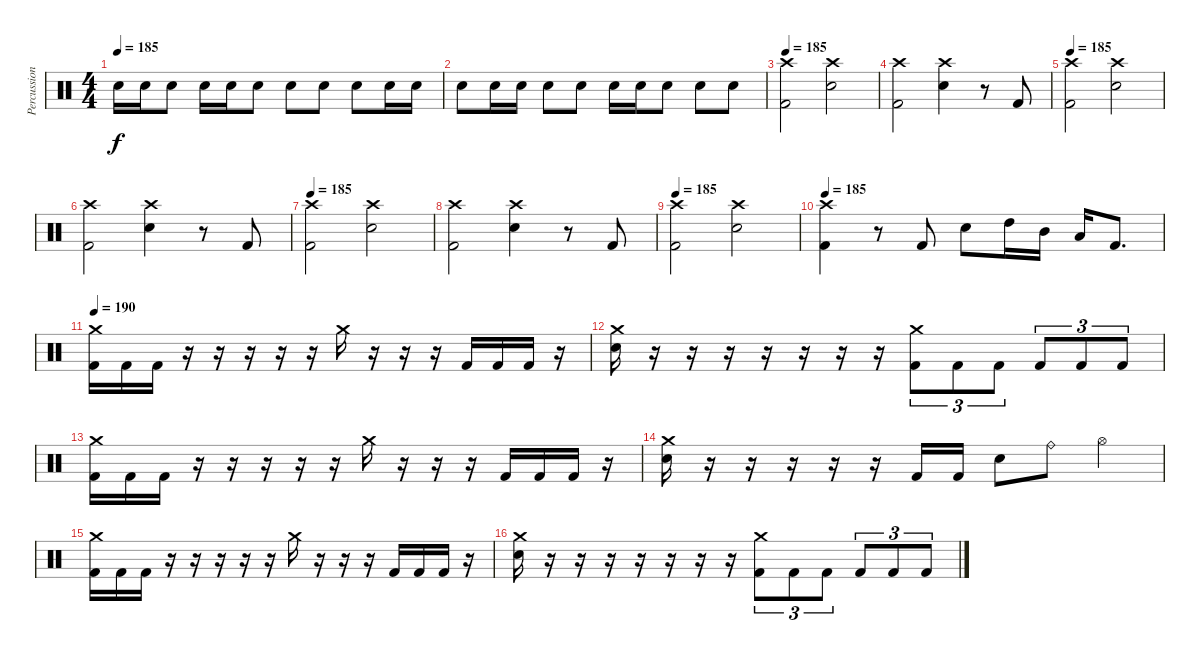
\track ("Percussion" "Percussion") {instrument percussion}
\staff {score}
\articulation defaults
\ts (4 4)
\tempo 185
\clef neutral
\ks c "Electric Snare (hit)".16{dy f} "Electric Snare (hit)".16 "Electric Snare (hit)".8 "Electric Snare (hit)".16 "Electric Snare (hit)".16 "Electric Snare (hit)".8 "Electric Snare (hit)".8 "Electric Snare (hit)".8 "Electric Snare (hit)".8 "Electric Snare (hit)".16 "Electric Snare (hit)".16
|
"Electric Snare (hit)".8 "Electric Snare (hit)".16 "Electric Snare (hit)".16 "Electric Snare (hit)".8 "Electric Snare (hit)".8 "Electric Snare (hit)".16 "Electric Snare (hit)".16 "Electric Snare (hit)".8 "Electric Snare (hit)".8 "Electric Snare (hit)".8 |
\tempo 185
("Crash high (hit)" "Kick (hit) 2").2 ("Crash high (hit)" "Electric Snare (hit)").2 |
("Crash high (hit)" "Kick (hit) 2").2 ("Crash high (hit)" "Electric Snare (hit)").4 r.8 "Kick (hit) 2".8 |
\tempo 185
("Crash high (hit)" "Kick (hit) 2").2 ("Crash high (hit)" "Electric Snare (hit)").2 |
("Crash high (hit)" "Kick (hit) 2").2 ("Crash high (hit)" "Electric Snare (hit)").4 r.8 "Kick (hit) 2".8 |
\tempo 185
("Crash high (hit)" "Kick (hit) 2").2 ("Crash high (hit)" "Electric Snare (hit)").2 |
("Crash high (hit)" "Kick (hit) 2").2 ("Crash high (hit)" "Electric Snare (hit)").4 r.8 "Kick (hit) 2".8 |
\tempo 185
("Crash high (hit)" "Kick (hit) 2").2 ("Crash high (hit)" "Electric Snare (hit)").2 |
\tempo 185
("Crash high (hit)" "Kick (hit) 2").4 r.8 "Kick (hit) 2".8 "Electric Snare (hit)".8 "High Tom (hit)".16 "Mid Tom (hit)".16 "Low Tom (hit)".16 "Kick (hit) 2".8{d} |
\tempo 190
("Crash medium (hit)" "Kick (hit) 2").16 "Kick (hit) 2".16 "Kick (hit) 2".16 r.16 r.16 r.16 r.16 r.16 "Crash medium (hit)".16 r.16 r.16 r.16 "Kick (hit) 2".16 "Kick (hit) 2".16 "Kick (hit) 2".16 r.16 |
("Crash medium (hit)" "Electric Snare (hit)").16 r.16 r.16 r.16 r.16 r.16 r.16 r.16 ("Crash medium (hit)" "Kick (hit) 2").8{tu (3 2)} "Kick (hit) 2".8{tu (3 2)} "Kick (hit) 2".8{tu (3 2)} "Kick (hit) 2".8{tu (3 2)} "Kick (hit) 2".8{tu (3 2)} "Kick (hit) 2".8{tu (3 2)} |
("Crash medium (hit)" "Kick (hit) 2").16 "Kick (hit) 2".16 "Kick (hit) 2".16 r.16 r.16 r.16 r.16 r.16 "Crash medium (hit)".16 r.16 r.16 r.16 "Kick (hit) 2".16 "Kick (hit) 2".16 "Kick (hit) 2".16 r.16 |
("Crash medium (hit)" "Electric Snare (hit)").16 r.16 r.16 r.16 r.16 r.16 "Kick (hit) 2".16 "Kick (hit) 2".16 "Electric Snare (hit)".8 "Ride (bell)".8 "Hi-Hat (open)".4 |
("Crash medium (hit)" "Kick (hit) 2").16 "Kick (hit) 2".16 "Kick (hit) 2".16 r.16 r.16 r.16 r.16 r.16 "Crash medium (hit)".16 r.16 r.16 r.16 "Kick (hit) 2".16 "Kick (hit) 2".16 "Kick (hit) 2".16 r.16 |
("Crash medium (hit)" "Electric Snare (hit)").16 r.16 r.16 r.16 r.16 r.16 r.16 r.16 ("Crash medium (hit)" "Kick (hit) 2").8{tu (3 2)} "Kick (hit) 2".8{tu (3 2)} "Kick (hit) 2".8{tu (3 2)} "Kick (hit) 2".8{tu (3 2)} "Kick (hit) 2".8{tu (3 2)} "Kick (hit) 2".8{tu (3 2)}
